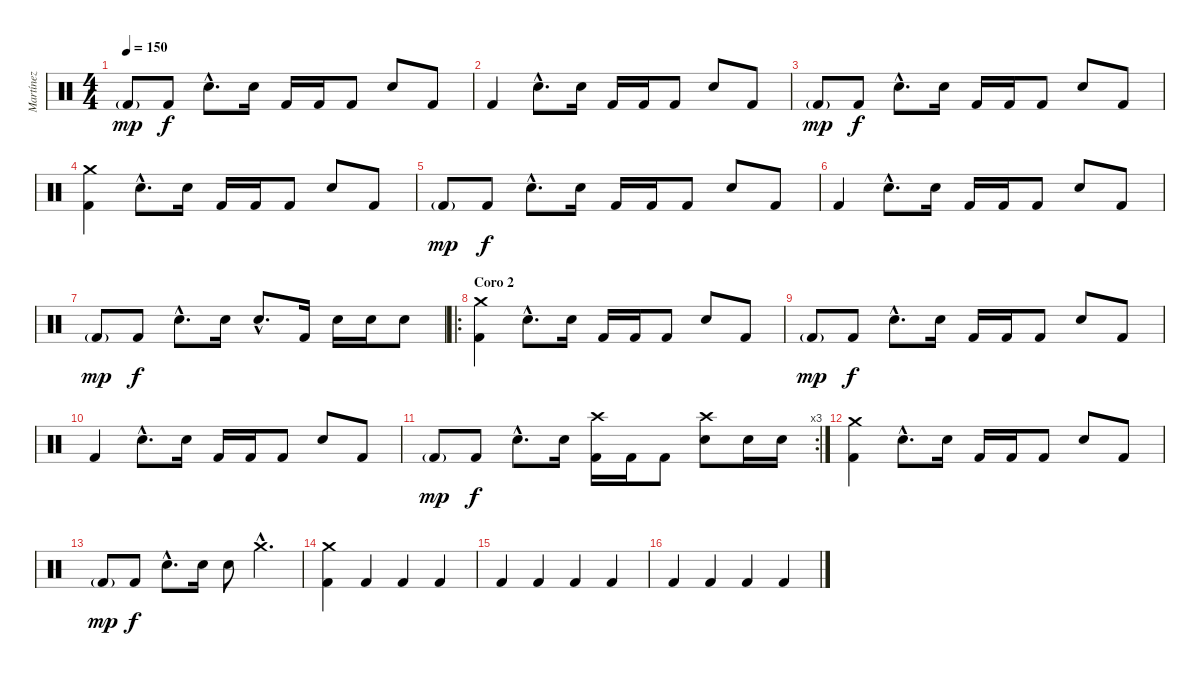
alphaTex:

\track ("Martínez" "Martínez") {instrument percussion}
\staff {score}
\articulation defaults
\ts (4 4)
\tempo 150
\clef neutral
\ks c "Kick (hit) 2"{g}.8{dy mp} "Kick (hit) 2".8{dy f} "Electric Snare (hit)"{hac}.8{d} "Electric Snare (hit)".16 "Kick (hit) 2".16 "Kick (hit) 2".16 "Kick (hit) 2".8 "Electric Snare (hit)".8 "Kick (hit) 2".8
|
"Kick (hit) 2".4 "Electric Snare (hit)"{hac}.8{d} "Electric Snare (hit)".16 "Kick (hit) 2".16 "Kick (hit) 2".16 "Kick (hit) 2".8 "Electric Snare (hit)".8 "Kick (hit) 2".8 |
"Kick (hit) 2"{g}.8{dy mp} "Kick (hit) 2".8{dy f} "Electric Snare (hit)"{hac}.8{d} "Electric Snare (hit)".16 "Kick (hit) 2".16 "Kick (hit) 2".16 "Kick (hit) 2".8 "Electric Snare (hit)".8 "Kick (hit) 2".8 |
("Crash medium (hit)" "Kick (hit) 2").4 "Electric Snare (hit)"{hac}.8{d} "Electric Snare (hit)".16 "Kick (hit) 2".16 "Kick (hit) 2".16 "Kick (hit) 2".8 "Electric Snare (hit)".8 "Kick (hit) 2".8 |
"Kick (hit) 2"{g}.8{dy mp} "Kick (hit) 2".8{dy f} "Electric Snare (hit)"{hac}.8{d} "Electric Snare (hit)".16 "Kick (hit) 2".16 "Kick (hit) 2".16 "Kick (hit) 2".8 "Electric Snare (hit)".8 "Kick (hit) 2".8 |
"Kick (hit) 2".4 "Electric Snare (hit)"{hac}.8{d} "Electric Snare (hit)".16 "Kick (hit) 2".16 "Kick (hit) 2".16 "Kick (hit) 2".8 "Electric Snare (hit)".8 "Kick (hit) 2".8 |
"Kick (hit) 2"{g}.8{dy mp} "Kick (hit) 2".8{dy f} "Electric Snare (hit)"{hac}.8{d} "Electric Snare (hit)".16 "Electric Snare (hit)"{hac}.8{d} "Kick (hit) 2".16 "Electric Snare (hit)".16 "Electric Snare (hit)".16 "Electric Snare (hit)".8 |
\ro
\section ("" "Coro 2")
("Crash medium (hit)" "Kick (hit) 2").4 "Electric Snare (hit)"{hac}.8{d} "Electric Snare (hit)".16 "Kick (hit) 2".16 "Kick (hit) 2".16 "Kick (hit) 2".8 "Electric Snare (hit)".8 "Kick (hit) 2".8 |
"Kick (hit) 2"{g}.8{dy mp} "Kick (hit) 2".8{dy f} "Electric Snare (hit)"{hac}.8{d} "Electric Snare (hit)".16 "Kick (hit) 2".16 "Kick (hit) 2".16 "Kick (hit) 2".8 "Electric Snare (hit)".8 "Kick (hit) 2".8 |
"Kick (hit) 2".4 "Electric Snare (hit)"{hac}.8{d} "Electric Snare (hit)".16 "Kick (hit) 2".16 "Kick (hit) 2".16 "Kick (hit) 2".8 "Electric Snare (hit)".8 "Kick (hit) 2".8 |
\rc 3 "Kick (hit) 2"{g}.8{dy mp} "Kick (hit) 2".8{dy f} "Electric Snare (hit)"{hac}.8{d} "Electric Snare (hit)".16
("Crash high (hit)" "Kick (hit) 2").16 "Kick (hit) 2".16 "Kick (hit) 2".8 ("Crash high (hit)" "Electric Snare (hit)").8 "Electric Snare (hit)".16 "Electric Snare (hit)".16 |
("Crash medium (hit)" "Kick (hit) 2").4 "Electric Snare (hit)"{hac}.8{d} "Electric Snare (hit)".16 "Kick (hit) 2".16 "Kick (hit) 2".16 "Kick (hit) 2".8 "Electric Snare (hit)".8 "Kick (hit) 2".8 |
"Kick (hit) 2"{g}.8{dy mp} "Kick (hit) 2".8{dy f} "Electric Snare (hit)"{hac}.8{d} "Electric Snare (hit)".16 "Electric Snare (hit)".8 "Crash medium (hit)"{hac}.4{d} |
("Crash medium (hit)" "Kick (hit) 2").4 "Kick (hit) 2".4 "Kick (hit) 2".4 "Kick (hit) 2".4 |
"Kick (hit) 2".4 "Kick (hit) 2".4 "Kick (hit) 2".4 "Kick (hit) 2".4 |
"Kick (hit) 2".4 "Kick (hit) 2".4 "Kick (hit) 2".4 "Kick (hit) 2".4
